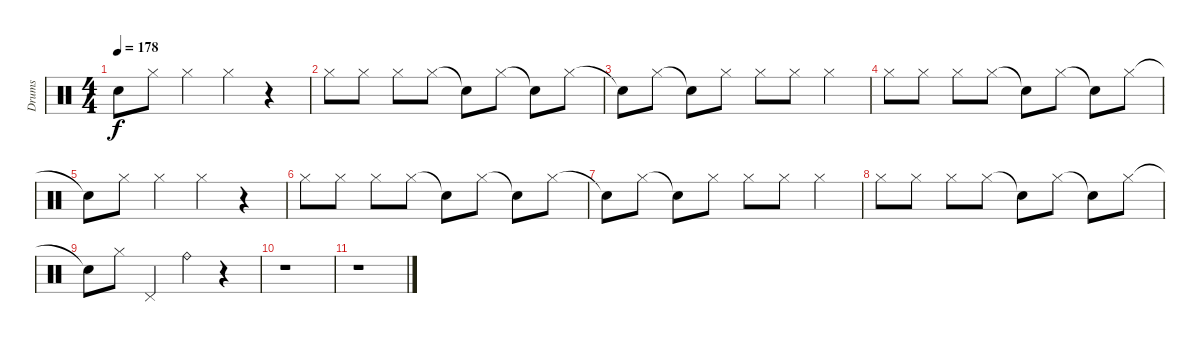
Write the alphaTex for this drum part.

\track ("Drums" "Drums") {instrument percussion}
\staff {score}
\articulation defaults
\ts (4 4)
\tempo 178
\clef neutral
\ks c "Snare (hit)"{t}.8{dy f} "Hi-Hat (closed)".8 "Hi-Hat (closed)".4 "Hi-Hat (closed)".4
r.4 |
"Hi-Hat (closed)".8 "Hi-Hat (closed)".8 "Hi-Hat (closed)".8 "Hi-Hat (closed)".8 "Snare (hit)"{t}.8 "Hi-Hat (closed)".8 "Snare (hit)"{t}.8 "Hi-Hat (closed)".8 |
"Snare (hit)"{t}.8 "Hi-Hat (closed)".8 "Snare (hit)"{t}.8 "Hi-Hat (closed)".8 "Hi-Hat (closed)".8 "Hi-Hat (closed)".8 "Hi-Hat (closed)".4 |
"Hi-Hat (closed)".8 "Hi-Hat (closed)".8 "Hi-Hat (closed)".8 "Hi-Hat (closed)".8 "Snare (hit)"{t}.8 "Hi-Hat (closed)".8 "Snare (hit)"{t}.8 "Hi-Hat (closed)".8 |
"Snare (hit)"{t}.8 "Hi-Hat (closed)".8 "Hi-Hat (closed)".4 "Hi-Hat (closed)".4 r.4 |
"Hi-Hat (closed)".8 "Hi-Hat (closed)".8 "Hi-Hat (closed)".8 "Hi-Hat (closed)".8 "Snare (hit)"{t}.8 "Hi-Hat (closed)".8 "Snare (hit)"{t}.8 "Hi-Hat (closed)".8 |
"Snare (hit)"{t}.8 "Hi-Hat (closed)".8 "Snare (hit)"{t}.8 "Hi-Hat (closed)".8 "Hi-Hat (closed)".8 "Hi-Hat (closed)".8 "Hi-Hat (closed)".4 |
"Hi-Hat (closed)".8 "Hi-Hat (closed)".8 "Hi-Hat (closed)".8 "Hi-Hat (closed)".8 "Snare (hit)"{t}.8 "Hi-Hat (closed)".8 "Snare (hit)"{t}.8 "Hi-Hat (closed)".8 |
"Snare (hit)"{t}.8 "Hi-Hat (closed)".8 "Pedal Hi-Hat (hit)".4 "Ride (bell)".4 r.4 |
r.1 |
r.1
